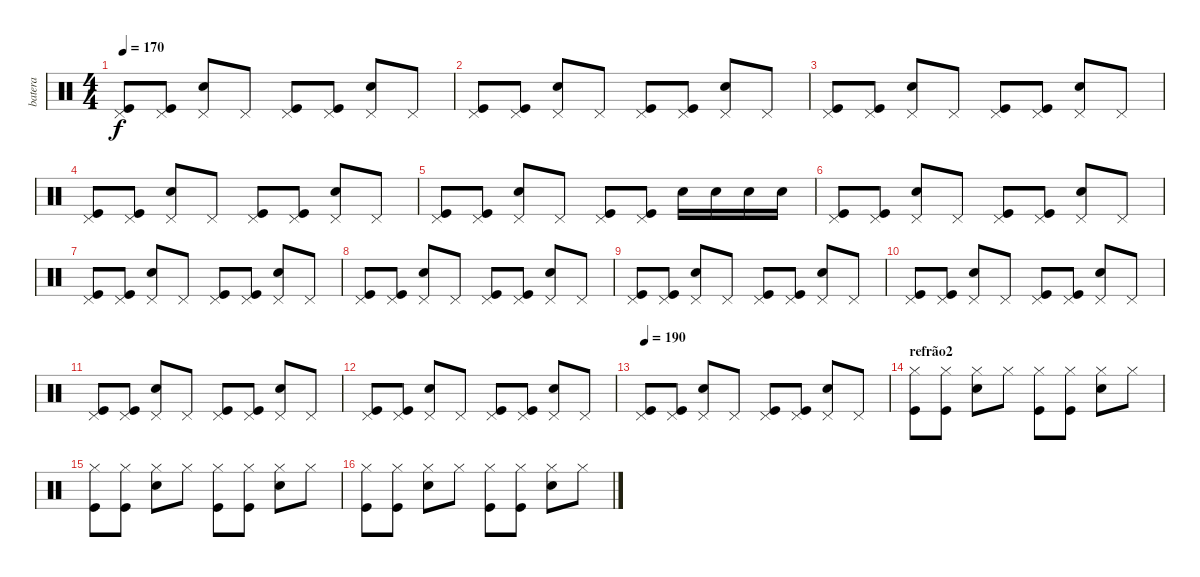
\track ("batera" "batera") {instrument percussion}
\staff {score}
\articulation defaults
\ts (4 4)
\tempo 170
\clef neutral
\ks c
("Pedal Hi-Hat (hit)" "Kick (hit)").8{dy f} ("Pedal Hi-Hat (hit)" "Kick (hit)").8 ("Pedal Hi-Hat (hit)" "Snare (hit) 2").8 "Pedal Hi-Hat (hit)".8 ("Pedal Hi-Hat (hit)" "Kick (hit)").8 ("Pedal Hi-Hat (hit)" "Kick (hit)").8 ("Pedal Hi-Hat (hit)" "Snare (hit) 2").8 "Pedal Hi-Hat (hit)".8 |
("Pedal Hi-Hat (hit)" "Kick (hit)").8 ("Pedal Hi-Hat (hit)" "Kick (hit)").8 ("Pedal Hi-Hat (hit)" "Snare (hit) 2").8 "Pedal Hi-Hat (hit)".8 ("Pedal Hi-Hat (hit)" "Kick (hit)").8 ("Pedal Hi-Hat (hit)" "Kick (hit)").8 ("Pedal Hi-Hat (hit)" "Snare (hit) 2").8 "Pedal Hi-Hat (hit)".8 |
("Pedal Hi-Hat (hit)" "Kick (hit)").8 ("Pedal Hi-Hat (hit)" "Kick (hit)").8 ("Pedal Hi-Hat (hit)" "Snare (hit) 2").8 "Pedal Hi-Hat (hit)".8 ("Pedal Hi-Hat (hit)" "Kick (hit)").8 ("Pedal Hi-Hat (hit)" "Kick (hit)").8 ("Pedal Hi-Hat (hit)" "Snare (hit) 2").8 "Pedal Hi-Hat (hit)".8 |
("Pedal Hi-Hat (hit)" "Kick (hit)").8 ("Pedal Hi-Hat (hit)" "Kick (hit)").8 ("Pedal Hi-Hat (hit)" "Snare (hit) 2").8 "Pedal Hi-Hat (hit)".8 ("Pedal Hi-Hat (hit)" "Kick (hit)").8 ("Pedal Hi-Hat (hit)" "Kick (hit)").8 ("Pedal Hi-Hat (hit)" "Snare (hit) 2").8 "Pedal Hi-Hat (hit)".8 |
("Pedal Hi-Hat (hit)" "Kick (hit)").8 ("Pedal Hi-Hat (hit)" "Kick (hit)").8 ("Pedal Hi-Hat (hit)" "Snare (hit) 2").8 "Pedal Hi-Hat (hit)".8 ("Pedal Hi-Hat (hit)" "Kick (hit)").8 ("Pedal Hi-Hat (hit)" "Kick (hit)").8 "Snare (hit) 2".16 "Snare (hit) 2".16 "Snare (hit) 2".16 "Snare (hit) 2".16 |
("Pedal Hi-Hat (hit)" "Kick (hit)").8 ("Pedal Hi-Hat (hit)" "Kick (hit)").8 ("Pedal Hi-Hat (hit)" "Snare (hit) 2").8 "Pedal Hi-Hat (hit)".8 ("Pedal Hi-Hat (hit)" "Kick (hit)").8 ("Pedal Hi-Hat (hit)" "Kick (hit)").8 ("Pedal Hi-Hat (hit)" "Snare (hit) 2").8 "Pedal Hi-Hat (hit)".8 |
("Pedal Hi-Hat (hit)" "Kick (hit)").8 ("Pedal Hi-Hat (hit)" "Kick (hit)").8 ("Pedal Hi-Hat (hit)" "Snare (hit) 2").8 "Pedal Hi-Hat (hit)".8 ("Pedal Hi-Hat (hit)" "Kick (hit)").8 ("Pedal Hi-Hat (hit)" "Kick (hit)").8 ("Pedal Hi-Hat (hit)" "Snare (hit) 2").8 "Pedal Hi-Hat (hit)".8 |
("Pedal Hi-Hat (hit)" "Kick (hit)").8 ("Pedal Hi-Hat (hit)" "Kick (hit)").8 ("Pedal Hi-Hat (hit)" "Snare (hit) 2").8 "Pedal Hi-Hat (hit)".8 ("Pedal Hi-Hat (hit)" "Kick (hit)").8 ("Pedal Hi-Hat (hit)" "Kick (hit)").8 ("Pedal Hi-Hat (hit)" "Snare (hit) 2").8 "Pedal Hi-Hat (hit)".8 |
("Pedal Hi-Hat (hit)" "Kick (hit)").8 ("Pedal Hi-Hat (hit)" "Kick (hit)").8 ("Pedal Hi-Hat (hit)" "Snare (hit) 2").8 "Pedal Hi-Hat (hit)".8 ("Pedal Hi-Hat (hit)" "Kick (hit)").8 ("Pedal Hi-Hat (hit)" "Kick (hit)").8 ("Pedal Hi-Hat (hit)" "Snare (hit) 2").8 "Pedal Hi-Hat (hit)".8 |
("Pedal Hi-Hat (hit)" "Kick (hit)").8 ("Pedal Hi-Hat (hit)" "Kick (hit)").8 ("Pedal Hi-Hat (hit)" "Snare (hit) 2").8 "Pedal Hi-Hat (hit)".8 ("Pedal Hi-Hat (hit)" "Kick (hit)").8 ("Pedal Hi-Hat (hit)" "Kick (hit)").8 ("Pedal Hi-Hat (hit)" "Snare (hit) 2").8 "Pedal Hi-Hat (hit)".8 |
("Pedal Hi-Hat (hit)" "Kick (hit)").8 ("Pedal Hi-Hat (hit)" "Kick (hit)").8 ("Pedal Hi-Hat (hit)" "Snare (hit) 2").8 "Pedal Hi-Hat (hit)".8 ("Pedal Hi-Hat (hit)" "Kick (hit)").8 ("Pedal Hi-Hat (hit)" "Kick (hit)").8 ("Pedal Hi-Hat (hit)" "Snare (hit) 2").8 "Pedal Hi-Hat (hit)".8 |
("Pedal Hi-Hat (hit)" "Kick (hit)").8 ("Pedal Hi-Hat (hit)" "Kick (hit)").8 ("Pedal Hi-Hat (hit)" "Snare (hit) 2").8 "Pedal Hi-Hat (hit)".8 ("Pedal Hi-Hat (hit)" "Kick (hit)").8 ("Pedal Hi-Hat (hit)" "Kick (hit)").8 ("Pedal Hi-Hat (hit)" "Snare (hit) 2").8 "Pedal Hi-Hat (hit)".8 |
\tempo 190
("Pedal Hi-Hat (hit)" "Kick (hit)").8 ("Pedal Hi-Hat (hit)" "Kick (hit)").8 ("Pedal Hi-Hat (hit)" "Snare (hit) 2").8 "Pedal Hi-Hat (hit)".8 ("Pedal Hi-Hat (hit)" "Kick (hit)").8 ("Pedal Hi-Hat (hit)" "Kick (hit)").8 ("Pedal Hi-Hat (hit)" "Snare (hit) 2").8 "Pedal Hi-Hat (hit)".8 |
\section ("" "refrão2")
("Hi-Hat (closed)" "Kick (hit)").8 ("Hi-Hat (closed)" "Kick (hit)").8 ("Hi-Hat (closed)" "Snare (hit) 2").8 "Hi-Hat (closed)".8 ("Hi-Hat (closed)" "Kick (hit)").8 ("Hi-Hat (closed)" "Kick (hit)").8 ("Hi-Hat (closed)" "Snare (hit) 2").8 "Hi-Hat (closed)".8 |
("Hi-Hat (closed)" "Kick (hit)").8 ("Hi-Hat (closed)" "Kick (hit)").8 ("Hi-Hat (closed)" "Snare (hit) 2").8 "Hi-Hat (closed)".8 ("Hi-Hat (closed)" "Kick (hit)").8 ("Hi-Hat (closed)" "Kick (hit)").8 ("Hi-Hat (closed)" "Snare (hit) 2").8 "Hi-Hat (closed)".8 |
("Hi-Hat (closed)" "Kick (hit)").8 ("Hi-Hat (closed)" "Kick (hit)").8 ("Hi-Hat (closed)" "Snare (hit) 2").8 "Hi-Hat (closed)".8 ("Hi-Hat (closed)" "Kick (hit)").8 ("Hi-Hat (closed)" "Kick (hit)").8 ("Hi-Hat (closed)" "Snare (hit) 2").8 "Hi-Hat (closed)".8
